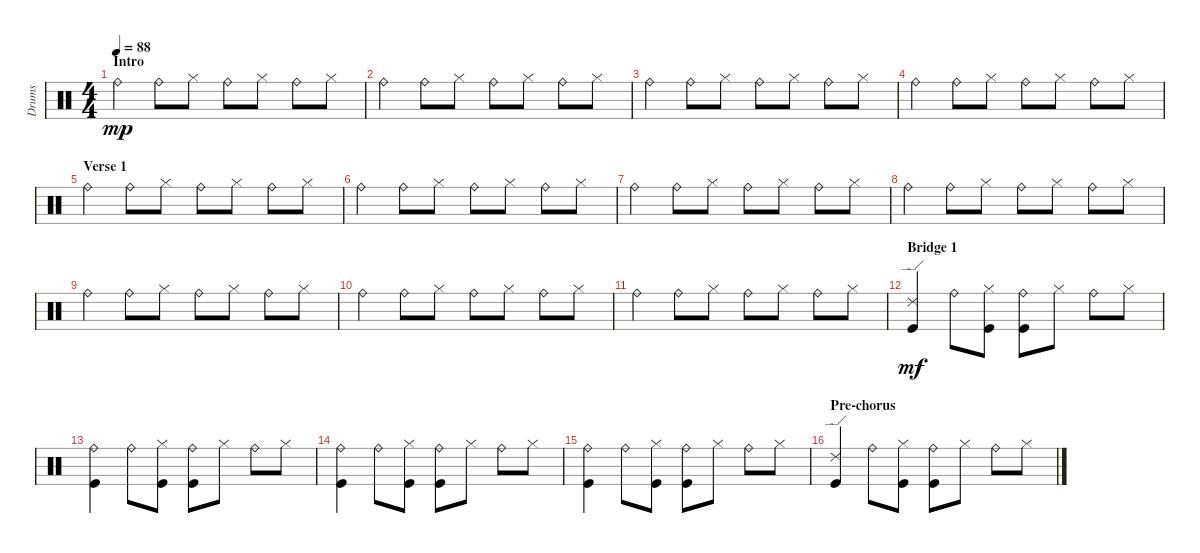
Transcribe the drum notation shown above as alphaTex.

\track ("Drums" "Drums") {instrument percussion}
\staff {score}
\articulation defaults
\ts (4 4)
\section ("" "Intro")
\tempo 88
\clef neutral
\ks c "Ride (bell)".4{dy mp} "Ride (bell)".8 "Hi-Hat (closed)".8 "Ride (bell)".8 "Hi-Hat (closed)".8 "Ride (bell)".8 "Hi-Hat (closed)".8
|
"Ride (bell)".4 "Ride (bell)".8 "Hi-Hat (closed)".8 "Ride (bell)".8 "Hi-Hat (closed)".8 "Ride (bell)".8 "Hi-Hat (closed)".8 |
"Ride (bell)".4 "Ride (bell)".8 "Hi-Hat (closed)".8 "Ride (bell)".8 "Hi-Hat (closed)".8 "Ride (bell)".8 "Hi-Hat (closed)".8 |
"Ride (bell)".4 "Ride (bell)".8 "Hi-Hat (closed)".8 "Ride (bell)".8 "Hi-Hat (closed)".8 "Ride (bell)".8 "Hi-Hat (closed)".8 |
\section ("" "Verse 1")
"Ride (bell)".4 "Ride (bell)".8 "Hi-Hat (closed)".8 "Ride (bell)".8 "Hi-Hat (closed)".8 "Ride (bell)".8 "Hi-Hat (closed)".8 |
"Ride (bell)".4 "Ride (bell)".8 "Hi-Hat (closed)".8 "Ride (bell)".8 "Hi-Hat (closed)".8 "Ride (bell)".8 "Hi-Hat (closed)".8 |
"Ride (bell)".4 "Ride (bell)".8 "Hi-Hat (closed)".8 "Ride (bell)".8 "Hi-Hat (closed)".8 "Ride (bell)".8 "Hi-Hat (closed)".8 |
"Ride (bell)".4 "Ride (bell)".8 "Hi-Hat (closed)".8 "Ride (bell)".8 "Hi-Hat (closed)".8 "Ride (bell)".8 "Hi-Hat (closed)".8 |
"Ride (bell)".4 "Ride (bell)".8 "Hi-Hat (closed)".8 "Ride (bell)".8 "Hi-Hat (closed)".8 "Ride (bell)".8 "Hi-Hat (closed)".8 |
"Ride (bell)".4 "Ride (bell)".8 "Hi-Hat (closed)".8 "Ride (bell)".8 "Hi-Hat (closed)".8 "Ride (bell)".8 "Hi-Hat (closed)".8 |
"Ride (bell)".4 "Ride (bell)".8 "Hi-Hat (closed)".8 "Ride (bell)".8 "Hi-Hat (closed)".8 "Ride (bell)".8 "Hi-Hat (closed)".8 |
\section ("" "Bridge 1")
("Ride (edge) 2" "Kick (hit)").4{dy mf} "Ride (bell)".8 ("Hi-Hat (closed)" "Kick (hit)").8 ("Ride (bell)" "Kick (hit)").8 "Hi-Hat (closed)".8 "Ride (bell)".8 "Hi-Hat (closed)".8 |
("Ride (bell)" "Kick (hit)").4 "Ride (bell)".8 ("Hi-Hat (closed)" "Kick (hit)").8 ("Ride (bell)" "Kick (hit)").8 "Hi-Hat (closed)".8 "Ride (bell)".8 "Hi-Hat (closed)".8 |
("Ride (bell)" "Kick (hit)").4 "Ride (bell)".8 ("Hi-Hat (closed)" "Kick (hit)").8 ("Ride (bell)" "Kick (hit)").8 "Hi-Hat (closed)".8 "Ride (bell)".8 "Hi-Hat (closed)".8 |
("Ride (bell)" "Kick (hit)").4 "Ride (bell)".8 ("Hi-Hat (closed)" "Kick (hit)").8 ("Ride (bell)" "Kick (hit)").8 "Hi-Hat (closed)".8 "Ride (bell)".8 "Hi-Hat (closed)".8 |
\section ("" "Pre-chorus")
("Ride (edge) 2" "Kick (hit)").4 "Ride (bell)".8 ("Hi-Hat (closed)" "Kick (hit)").8 ("Ride (bell)" "Kick (hit)").8 "Hi-Hat (closed)".8 "Ride (bell)".8 "Hi-Hat (closed)".8
